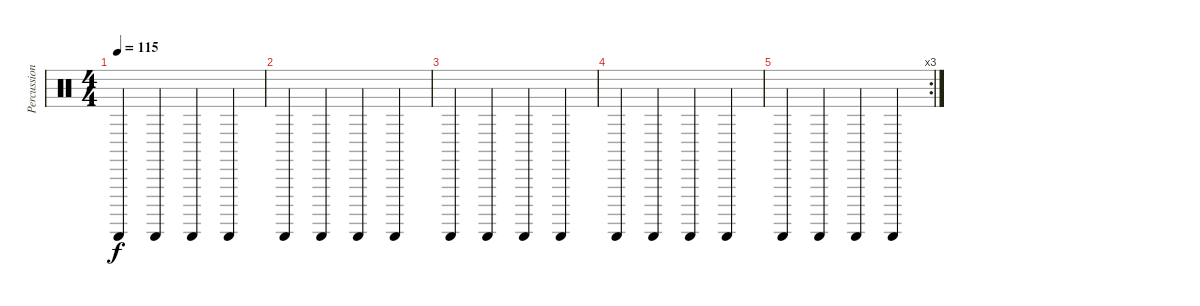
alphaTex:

\track ("Percussion" "Percussion") {instrument percussion}
\staff {score}
\articulation defaults
\ts (4 4)
\tempo 115
\clef neutral
\ks c "Guiro (scrap-return)".4{dy f} "Guiro (scrap-return)".4 "Guiro (scrap-return)".4 "Guiro (scrap-return)".4
|
"Guiro (scrap-return)".4 "Guiro (scrap-return)".4 "Guiro (scrap-return)".4 "Guiro (scrap-return)".4 |
"Guiro (scrap-return)".4 "Guiro (scrap-return)".4 "Guiro (scrap-return)".4 "Guiro (scrap-return)".4 |
"Guiro (scrap-return)".4 "Guiro (scrap-return)".4 "Guiro (scrap-return)".4 "Guiro (scrap-return)".4 |
\rc 3 "Guiro (scrap-return)".4 "Guiro (scrap-return)".4 "Guiro (scrap-return)".4 "Guiro (scrap-return)".4
